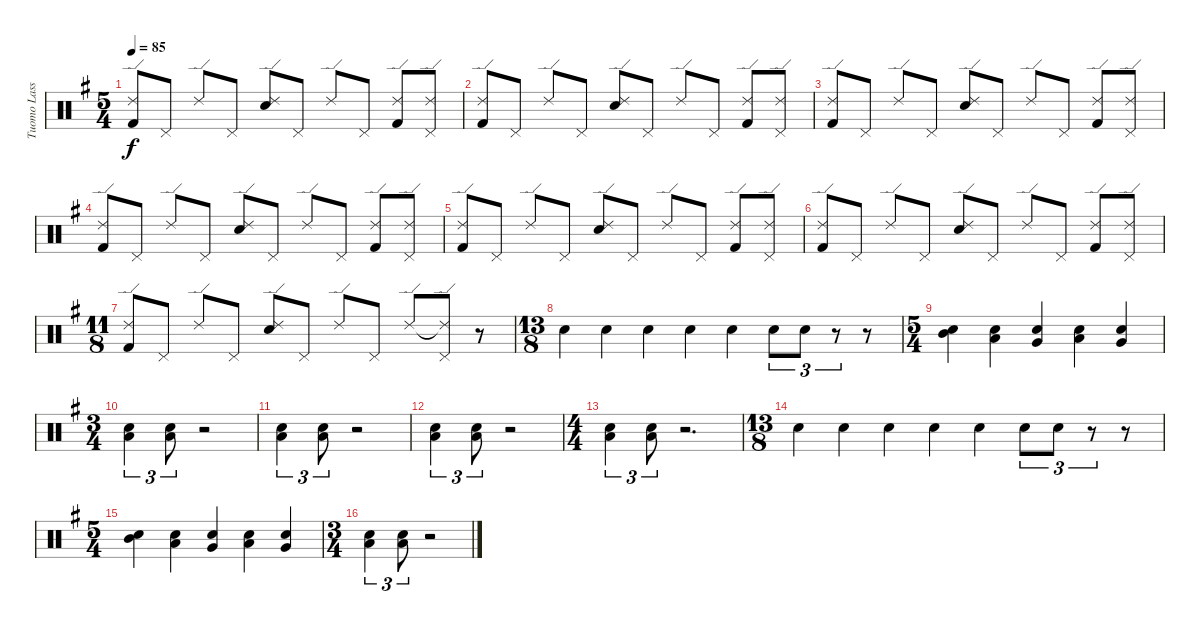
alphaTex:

\track ("Tuomo Lassila" "Tuomo Lass") {instrument percussion}
\staff {score}
\articulation defaults
\ts (5 4)
\tempo 85
\clef neutral
\ks g
("Ride (edge) 2" "Kick (hit) 2").8{dy f} "Pedal Hi-Hat (hit)".8 "Ride (edge) 2".8 "Pedal Hi-Hat (hit)".8 ("Ride (edge) 2" "Electric Snare (hit)").8 "Pedal Hi-Hat (hit)".8 "Ride (edge) 2".8 "Pedal Hi-Hat (hit)".8 ("Ride (edge) 2" "Kick (hit) 2").8 ("Ride (edge) 2" "Pedal Hi-Hat (hit)").8 |
("Ride (edge) 2" "Kick (hit) 2").8 "Pedal Hi-Hat (hit)".8 "Ride (edge) 2".8 "Pedal Hi-Hat (hit)".8 ("Ride (edge) 2" "Electric Snare (hit)").8 "Pedal Hi-Hat (hit)".8 "Ride (edge) 2".8 "Pedal Hi-Hat (hit)".8 ("Ride (edge) 2" "Kick (hit) 2").8 ("Ride (edge) 2" "Pedal Hi-Hat (hit)").8 |
("Ride (edge) 2" "Kick (hit) 2").8 "Pedal Hi-Hat (hit)".8 "Ride (edge) 2".8 "Pedal Hi-Hat (hit)".8 ("Ride (edge) 2" "Electric Snare (hit)").8 "Pedal Hi-Hat (hit)".8 "Ride (edge) 2".8 "Pedal Hi-Hat (hit)".8 ("Ride (edge) 2" "Kick (hit) 2").8 ("Ride (edge) 2" "Pedal Hi-Hat (hit)").8 |
("Ride (edge) 2" "Kick (hit) 2").8 "Pedal Hi-Hat (hit)".8 "Ride (edge) 2".8 "Pedal Hi-Hat (hit)".8 ("Ride (edge) 2" "Electric Snare (hit)").8 "Pedal Hi-Hat (hit)".8 "Ride (edge) 2".8 "Pedal Hi-Hat (hit)".8 ("Ride (edge) 2" "Kick (hit) 2").8 ("Ride (edge) 2" "Pedal Hi-Hat (hit)").8 |
("Ride (edge) 2" "Kick (hit) 2").8 "Pedal Hi-Hat (hit)".8 "Ride (edge) 2".8 "Pedal Hi-Hat (hit)".8 ("Ride (edge) 2" "Electric Snare (hit)").8 "Pedal Hi-Hat (hit)".8 "Ride (edge) 2".8 "Pedal Hi-Hat (hit)".8 ("Ride (edge) 2" "Kick (hit) 2").8 ("Ride (edge) 2" "Pedal Hi-Hat (hit)").8 |
("Ride (edge) 2" "Kick (hit) 2").8 "Pedal Hi-Hat (hit)".8 "Ride (edge) 2".8 "Pedal Hi-Hat (hit)".8 ("Ride (edge) 2" "Electric Snare (hit)").8 "Pedal Hi-Hat (hit)".8 "Ride (edge) 2".8 "Pedal Hi-Hat (hit)".8 ("Ride (edge) 2" "Kick (hit) 2").8 ("Ride (edge) 2" "Pedal Hi-Hat (hit)").8 |
\ts (11 8)
("Ride (edge) 2" "Kick (hit) 2").8 "Pedal Hi-Hat (hit)".8 "Ride (edge) 2".8 "Pedal Hi-Hat (hit)".8 ("Ride (edge) 2" "Electric Snare (hit)").8 "Pedal Hi-Hat (hit)".8 "Ride (edge) 2".8 "Pedal Hi-Hat (hit)".8 "Ride (edge) 2".8 ("Ride (edge) 2"{t} "Pedal Hi-Hat (hit)").8 r.8 |
\ts (13 8)
"Electric Snare (hit)".4 "Electric Snare (hit)".4 "Electric Snare (hit)".4 "Electric Snare (hit)".4 "Electric Snare (hit)".4 "Electric Snare (hit)".8{tu (3 2)} "Electric Snare (hit)".8{tu (3 2)} r.8{tu (3 2)} r.8 |
\ts (5 4)
("Electric Snare (hit)" "Mid Tom (hit)").4 ("Electric Snare (hit)" "Low Tom (hit)").4 ("Electric Snare (hit)" "Very Low Tom (hit)").4 ("Electric Snare (hit)" "Low Tom (hit)").4 ("Electric Snare (hit)" "Very Low Tom (hit)").4 |
\ts (3 4)
("Low Tom (hit)" "Electric Snare (hit)").4{tu (3 2)} ("Low Tom (hit)" "Electric Snare (hit)").8{tu (3 2)} r.2 |
("Low Tom (hit)" "Electric Snare (hit)").4{tu (3 2)} ("Low Tom (hit)" "Electric Snare (hit)").8{tu (3 2)} r.2 |
("Low Tom (hit)" "Electric Snare (hit)").4{tu (3 2)} ("Low Tom (hit)" "Electric Snare (hit)").8{tu (3 2)} r.2 |
\ts (4 4)
("Low Tom (hit)" "Electric Snare (hit)").4{tu (3 2)} ("Low Tom (hit)" "Electric Snare (hit)").8{tu (3 2)} r.2{d} |
\ts (13 8)
"Electric Snare (hit)".4 "Electric Snare (hit)".4 "Electric Snare (hit)".4 "Electric Snare (hit)".4 "Electric Snare (hit)".4 "Electric Snare (hit)".8{tu (3 2)} "Electric Snare (hit)".8{tu (3 2)} r.8{tu (3 2)} r.8 |
\ts (5 4)
("Electric Snare (hit)" "Mid Tom (hit)").4 ("Electric Snare (hit)" "Low Tom (hit)").4 ("Electric Snare (hit)" "Very Low Tom (hit)").4 ("Electric Snare (hit)" "Low Tom (hit)").4 ("Electric Snare (hit)" "Very Low Tom (hit)").4 |
\ts (3 4)
("Low Tom (hit)" "Electric Snare (hit)").4{tu (3 2)} ("Low Tom (hit)" "Electric Snare (hit)").8{tu (3 2)} r.2
